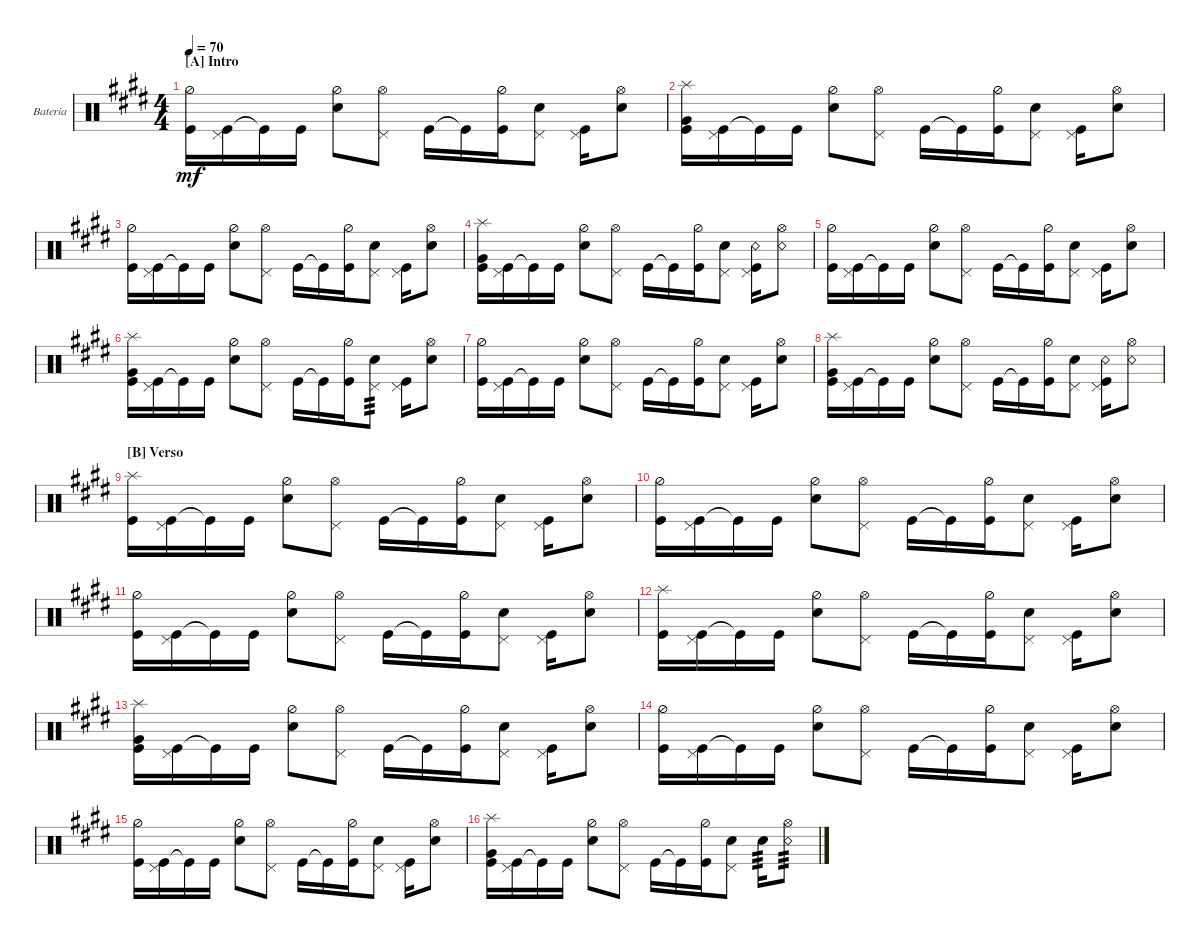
\defaultSystemsLayout 4
\bracketExtendMode groupsimilarinstruments
\firstSystemTrackNameOrientation horizontal
\otherSystemsTrackNameOrientation horizontal
\track ("Bateria" "Bateria") {instrument percussion}
\staff {score}
\articulation defaults
\ts (4 4)
\section ("A" "Intro")
\tempo 70
\clef neutral
\ks e
("Kick (hit)" "Hi-Hat (half)").16{dy mf} ("Kick (hit)" "Pedal Hi-Hat (hit)").16 "Kick (hit)"{t}.16 "Kick (hit)".16 ("Snare (hit) 2" "Hi-Hat (half)").8 ("Hi-Hat (open)" "Pedal Hi-Hat (hit)").8 "Kick (hit)".16 "Kick (hit)"{t}.16 ("Kick (hit)" "Hi-Hat (half)").16 ("Snare (hit) 2" "Pedal Hi-Hat (hit)").8 ("Kick (hit)" "Pedal Hi-Hat (hit)").16 ("Snare (hit) 2" "Hi-Hat (open)").8 |
("Kick (hit)" "Very Low Tom (hit)" "Splash (hit)").16 ("Kick (hit)" "Pedal Hi-Hat (hit)").16 "Kick (hit)"{t}.16 "Kick (hit)".16 ("Snare (hit) 2" "Hi-Hat (half)").8 ("Hi-Hat (open)" "Pedal Hi-Hat (hit)").8 "Kick (hit)".16 "Kick (hit)"{t}.16 ("Kick (hit)" "Hi-Hat (half)").16 ("Snare (hit) 2" "Pedal Hi-Hat (hit)").8 ("Kick (hit)" "Pedal Hi-Hat (hit)").16 ("Snare (hit) 2" "Hi-Hat (open)").8 |
("Kick (hit)" "Hi-Hat (half)").16 ("Kick (hit)" "Pedal Hi-Hat (hit)").16 "Kick (hit)"{t}.16 "Kick (hit)".16 ("Snare (hit) 2" "Hi-Hat (half)").8 ("Hi-Hat (open)" "Pedal Hi-Hat (hit)").8 "Kick (hit)".16 "Kick (hit)"{t}.16 ("Kick (hit)" "Hi-Hat (half)").16 ("Snare (hit) 2" "Pedal Hi-Hat (hit)").8 ("Kick (hit)" "Pedal Hi-Hat (hit)").16 ("Snare (hit) 2" "Hi-Hat (open)").8 |
("Kick (hit)" "Very Low Tom (hit)" "Splash (hit)").16 ("Kick (hit)" "Pedal Hi-Hat (hit)").16 "Kick (hit)"{t}.16 "Kick (hit)".16 ("Snare (hit) 2" "Hi-Hat (half)").8 ("Hi-Hat (open)" "Pedal Hi-Hat (hit)").8 "Kick (hit)".16 "Kick (hit)"{t}.16 ("Kick (hit)" "Hi-Hat (half)").16 ("Snare (hit) 2" "Pedal Hi-Hat (hit)").8 ("Kick (hit)" "Pedal Hi-Hat (hit)" "Snare (rim shot)").16 ("Snare (rim shot)" "Hi-Hat (open)").8 |
("Kick (hit)" "Hi-Hat (half)").16 ("Kick (hit)" "Pedal Hi-Hat (hit)").16 "Kick (hit)"{t}.16 "Kick (hit)".16 ("Snare (hit) 2" "Hi-Hat (half)").8 ("Hi-Hat (open)" "Pedal Hi-Hat (hit)").8 "Kick (hit)".16 "Kick (hit)"{t}.16 ("Kick (hit)" "Hi-Hat (half)").16 ("Snare (hit) 2" "Pedal Hi-Hat (hit)").8 ("Kick (hit)" "Pedal Hi-Hat (hit)").16 ("Snare (hit) 2" "Hi-Hat (open)").8 |
("Kick (hit)" "Very Low Tom (hit)" "Splash (hit)").16 ("Kick (hit)" "Pedal Hi-Hat (hit)").16 "Kick (hit)"{t}.16 "Kick (hit)".16 ("Snare (hit) 2" "Hi-Hat (half)").8 ("Hi-Hat (open)" "Pedal Hi-Hat (hit)").8 "Kick (hit)".16 "Kick (hit)"{t}.16 ("Kick (hit)" "Hi-Hat (half)").16 ("Snare (hit) 2" "Pedal Hi-Hat (hit)").8{tp 3} ("Kick (hit)" "Pedal Hi-Hat (hit)").16 ("Snare (hit) 2" "Hi-Hat (open)").8 |
("Kick (hit)" "Hi-Hat (half)").16 ("Kick (hit)" "Pedal Hi-Hat (hit)").16 "Kick (hit)"{t}.16 "Kick (hit)".16 ("Snare (hit) 2" "Hi-Hat (half)").8 ("Hi-Hat (open)" "Pedal Hi-Hat (hit)").8 "Kick (hit)".16 "Kick (hit)"{t}.16 ("Kick (hit)" "Hi-Hat (half)").16 ("Snare (hit) 2" "Pedal Hi-Hat (hit)").8 ("Kick (hit)" "Pedal Hi-Hat (hit)").16 ("Snare (hit) 2" "Hi-Hat (open)").8 |
("Kick (hit)" "Very Low Tom (hit)" "Splash (hit)").16 ("Kick (hit)" "Pedal Hi-Hat (hit)").16 "Kick (hit)"{t}.16 "Kick (hit)".16 ("Snare (hit) 2" "Hi-Hat (half)").8 ("Hi-Hat (open)" "Pedal Hi-Hat (hit)").8 "Kick (hit)".16 "Kick (hit)"{t}.16 ("Kick (hit)" "Hi-Hat (half)").16 ("Snare (hit) 2" "Pedal Hi-Hat (hit)").8 ("Kick (hit)" "Pedal Hi-Hat (hit)" "Snare (rim shot)").16 ("Snare (rim shot)" "Hi-Hat (open)").8 |
\section ("B" "Verso")
("Kick (hit)" "Splash (hit)").16 ("Kick (hit)" "Pedal Hi-Hat (hit)").16 "Kick (hit)"{t}.16 "Kick (hit)".16 ("Snare (hit) 2" "Hi-Hat (half)").8 ("Hi-Hat (open)" "Pedal Hi-Hat (hit)").8 "Kick (hit)".16 "Kick (hit)"{t}.16 ("Kick (hit)" "Hi-Hat (half)").16 ("Snare (hit) 2" "Pedal Hi-Hat (hit)").8 ("Kick (hit)" "Pedal Hi-Hat (hit)").16 ("Snare (hit) 2" "Hi-Hat (open)").8 |
("Kick (hit)" "Hi-Hat (half)").16 ("Kick (hit)" "Pedal Hi-Hat (hit)").16 "Kick (hit)"{t}.16 "Kick (hit)".16 ("Snare (hit) 2" "Hi-Hat (half)").8 ("Hi-Hat (open)" "Pedal Hi-Hat (hit)").8 "Kick (hit)".16 "Kick (hit)"{t}.16 ("Kick (hit)" "Hi-Hat (half)").16 ("Snare (hit) 2" "Pedal Hi-Hat (hit)").8 ("Kick (hit)" "Pedal Hi-Hat (hit)").16 ("Snare (hit) 2" "Hi-Hat (open)").8 |
("Kick (hit)" "Hi-Hat (half)").16 ("Kick (hit)" "Pedal Hi-Hat (hit)").16 "Kick (hit)"{t}.16 "Kick (hit)".16 ("Snare (hit) 2" "Hi-Hat (half)").8 ("Hi-Hat (open)" "Pedal Hi-Hat (hit)").8 "Kick (hit)".16 "Kick (hit)"{t}.16 ("Kick (hit)" "Hi-Hat (half)").16 ("Snare (hit) 2" "Pedal Hi-Hat (hit)").8 ("Kick (hit)" "Pedal Hi-Hat (hit)").16 ("Snare (hit) 2" "Hi-Hat (open)").8 |
("Kick (hit)" "Splash (hit)").16 ("Kick (hit)" "Pedal Hi-Hat (hit)").16 "Kick (hit)"{t}.16 "Kick (hit)".16 ("Snare (hit) 2" "Hi-Hat (half)").8 ("Hi-Hat (open)" "Pedal Hi-Hat (hit)").8 "Kick (hit)".16 "Kick (hit)"{t}.16 ("Kick (hit)" "Hi-Hat (half)").16 ("Snare (hit) 2" "Pedal Hi-Hat (hit)").8 ("Kick (hit)" "Pedal Hi-Hat (hit)").16 ("Snare (hit) 2" "Hi-Hat (open)").8 |
("Kick (hit)" "Very Low Tom (hit)" "Splash (hit)").16 ("Kick (hit)" "Pedal Hi-Hat (hit)").16 "Kick (hit)"{t}.16 "Kick (hit)".16 ("Snare (hit) 2" "Hi-Hat (half)").8 ("Hi-Hat (open)" "Pedal Hi-Hat (hit)").8 "Kick (hit)".16 "Kick (hit)"{t}.16 ("Kick (hit)" "Hi-Hat (half)").16 ("Snare (hit) 2" "Pedal Hi-Hat (hit)").8 ("Kick (hit)" "Pedal Hi-Hat (hit)").16 ("Snare (hit) 2" "Hi-Hat (open)").8 |
("Kick (hit)" "Hi-Hat (half)").16 ("Kick (hit)" "Pedal Hi-Hat (hit)").16 "Kick (hit)"{t}.16 "Kick (hit)".16 ("Snare (hit) 2" "Hi-Hat (half)").8 ("Hi-Hat (open)" "Pedal Hi-Hat (hit)").8 "Kick (hit)".16 "Kick (hit)"{t}.16 ("Kick (hit)" "Hi-Hat (half)").16 ("Snare (hit) 2" "Pedal Hi-Hat (hit)").8 ("Kick (hit)" "Pedal Hi-Hat (hit)").16 ("Snare (hit) 2" "Hi-Hat (open)").8 |
("Kick (hit)" "Hi-Hat (half)").16 ("Kick (hit)" "Pedal Hi-Hat (hit)").16 "Kick (hit)"{t}.16 "Kick (hit)".16 ("Snare (hit) 2" "Hi-Hat (half)").8 ("Hi-Hat (open)" "Pedal Hi-Hat (hit)").8 "Kick (hit)".16 "Kick (hit)"{t}.16 ("Kick (hit)" "Hi-Hat (half)").16 ("Snare (hit) 2" "Pedal Hi-Hat (hit)").8 ("Kick (hit)" "Pedal Hi-Hat (hit)").16 ("Snare (hit) 2" "Hi-Hat (open)").8 |
("Kick (hit)" "Very Low Tom (hit)" "Splash (hit)").16 ("Kick (hit)" "Pedal Hi-Hat (hit)").16 "Kick (hit)"{t}.16 "Kick (hit)".16 ("Snare (hit) 2" "Hi-Hat (half)").8 ("Hi-Hat (open)" "Pedal Hi-Hat (hit)").8 "Kick (hit)".16 "Kick (hit)"{t}.16 ("Kick (hit)" "Hi-Hat (half)").16 ("Snare (hit) 2" "Pedal Hi-Hat (hit)").8 "Snare (hit) 2".16{tp 3} ("Snare (rim shot)" "Hi-Hat (open)").8{tp 3}
